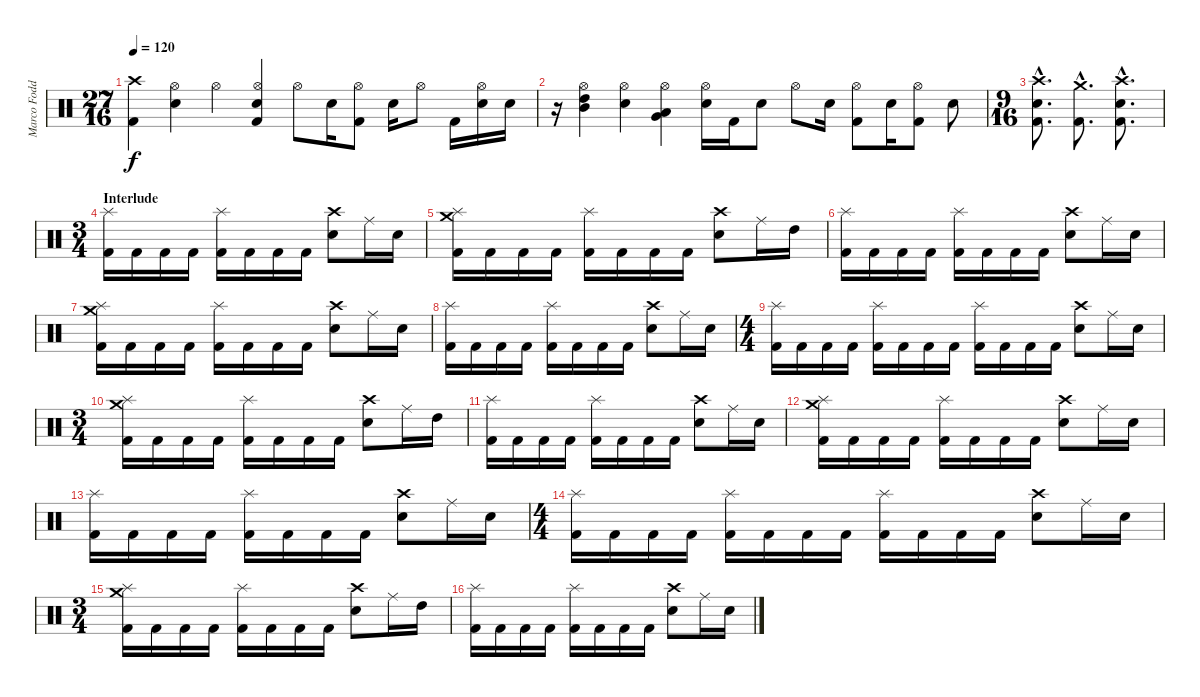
\track ("Marco Foddis " "Marco Fodd") {instrument percussion}
\staff {score}
\articulation defaults
\ts (27 16)
\tempo 120
\clef neutral
\ks c
("Crash high (hit)" "Kick (hit) 2").4{dy f} ("Hi-Hat (open)" "Electric Snare (hit)").4 "Hi-Hat (open)".4 ("Hi-Hat (open)" "Electric Snare (hit)" "Kick (hit) 2").4 "Hi-Hat (open)".8 "Electric Snare (hit)".16 ("Hi-Hat (open)" "Kick (hit) 2").8 "Electric Snare (hit)".16 "Hi-Hat (open)".8 "Kick (hit) 2".16 ("Hi-Hat (open)" "Electric Snare (hit)").16 "Electric Snare (hit)".16 |
r.16 ("Hi-Hat (open)" "High Tom (hit)" "Mid Tom (hit)").4 ("Hi-Hat (open)" "Electric Snare (hit)").4 ("Hi-Hat (open)" "Very Low Tom (hit)" "Low Tom (hit)").4 ("Hi-Hat (open)" "Electric Snare (hit)").16 "Kick (hit) 2".16 "Electric Snare (hit)".8 "Hi-Hat (open)".8 "Electric Snare (hit)".16 ("Hi-Hat (open)" "Kick (hit) 2").8 "Electric Snare (hit)".16 ("Hi-Hat (open)" "Kick (hit) 2").8 "Electric Snare (hit)".8 |
\ts (9 16)
("Crash high (hit)"{hac} "Electric Snare (hit)"{hac} "Kick (hit) 2"{hac}).8{d} ("Crash medium (hit)"{hac} "Kick (hit) 2"{hac}).8{d} ("Crash high (hit)"{hac} "Electric Snare (hit)"{hac} "Kick (hit) 2"{hac}).8{d} |
\ts (3 4)
\section ("" "Interlude")
("Splash (hit)" "Kick (hit) 2").16 "Kick (hit) 2".16 "Kick (hit) 2".16 "Kick (hit) 2".16 ("Splash (hit)" "Kick (hit) 2").16 "Kick (hit) 2".16 "Kick (hit) 2".16 "Kick (hit) 2".16 ("Crash high (hit)" "Electric Snare (hit)").8 "Ride (middle)".16 "Electric Snare (hit)".16 |
("Crash medium (hit)" "Splash (hit)" "Kick (hit) 2").16 "Kick (hit) 2".16 "Kick (hit) 2".16 "Kick (hit) 2".16 ("Splash (hit)" "Kick (hit) 2").16 "Kick (hit) 2".16 "Kick (hit) 2".16 "Kick (hit) 2".16 ("Crash high (hit)" "Electric Snare (hit)").8 "Ride (middle)".16 "High Tom (hit)".16 |
("Splash (hit)" "Kick (hit) 2").16 "Kick (hit) 2".16 "Kick (hit) 2".16 "Kick (hit) 2".16 ("Splash (hit)" "Kick (hit) 2").16 "Kick (hit) 2".16 "Kick (hit) 2".16 "Kick (hit) 2".16 ("Crash high (hit)" "Electric Snare (hit)").8 "Ride (middle)".16 "Electric Snare (hit)".16 |
("Crash medium (hit)" "Splash (hit)" "Kick (hit) 2").16 "Kick (hit) 2".16 "Kick (hit) 2".16 "Kick (hit) 2".16 ("Splash (hit)" "Kick (hit) 2").16 "Kick (hit) 2".16 "Kick (hit) 2".16 "Kick (hit) 2".16 ("Crash high (hit)" "Electric Snare (hit)").8 "Ride (middle)".16 "Electric Snare (hit)".16 |
("Splash (hit)" "Kick (hit) 2").16 "Kick (hit) 2".16 "Kick (hit) 2".16 "Kick (hit) 2".16 ("Splash (hit)" "Kick (hit) 2").16 "Kick (hit) 2".16 "Kick (hit) 2".16 "Kick (hit) 2".16 ("Crash high (hit)" "Electric Snare (hit)").8 "Ride (middle)".16 "Electric Snare (hit)".16 |
\ts (4 4)
("Splash (hit)" "Kick (hit) 2").16 "Kick (hit) 2".16 "Kick (hit) 2".16 "Kick (hit) 2".16 ("Splash (hit)" "Kick (hit) 2").16 "Kick (hit) 2".16 "Kick (hit) 2".16 "Kick (hit) 2".16 ("Splash (hit)" "Kick (hit) 2").16 "Kick (hit) 2".16 "Kick (hit) 2".16 "Kick (hit) 2".16 ("Crash high (hit)" "Electric Snare (hit)").8 "Ride (middle)".16 "Electric Snare (hit)".16 |
\ts (3 4)
("Crash medium (hit)" "Splash (hit)" "Kick (hit) 2").16 "Kick (hit) 2".16 "Kick (hit) 2".16 "Kick (hit) 2".16 ("Splash (hit)" "Kick (hit) 2").16 "Kick (hit) 2".16 "Kick (hit) 2".16 "Kick (hit) 2".16 ("Crash high (hit)" "Electric Snare (hit)").8 "Ride (middle)".16 "High Tom (hit)".16 |
("Splash (hit)" "Kick (hit) 2").16 "Kick (hit) 2".16 "Kick (hit) 2".16 "Kick (hit) 2".16 ("Splash (hit)" "Kick (hit) 2").16 "Kick (hit) 2".16 "Kick (hit) 2".16 "Kick (hit) 2".16 ("Crash high (hit)" "Electric Snare (hit)").8 "Ride (middle)".16 "Electric Snare (hit)".16 |
("Crash medium (hit)" "Splash (hit)" "Kick (hit) 2").16 "Kick (hit) 2".16 "Kick (hit) 2".16 "Kick (hit) 2".16 ("Splash (hit)" "Kick (hit) 2").16 "Kick (hit) 2".16 "Kick (hit) 2".16 "Kick (hit) 2".16 ("Crash high (hit)" "Electric Snare (hit)").8 "Ride (middle)".16 "Electric Snare (hit)".16 |
("Splash (hit)" "Kick (hit) 2").16 "Kick (hit) 2".16 "Kick (hit) 2".16 "Kick (hit) 2".16 ("Splash (hit)" "Kick (hit) 2").16 "Kick (hit) 2".16 "Kick (hit) 2".16 "Kick (hit) 2".16 ("Crash high (hit)" "Electric Snare (hit)").8 "Ride (middle)".16 "Electric Snare (hit)".16 |
\ts (4 4)
("Splash (hit)" "Kick (hit) 2").16 "Kick (hit) 2".16 "Kick (hit) 2".16 "Kick (hit) 2".16 ("Splash (hit)" "Kick (hit) 2").16 "Kick (hit) 2".16 "Kick (hit) 2".16 "Kick (hit) 2".16 ("Splash (hit)" "Kick (hit) 2").16 "Kick (hit) 2".16 "Kick (hit) 2".16 "Kick (hit) 2".16 ("Crash high (hit)" "Electric Snare (hit)").8 "Ride (middle)".16 "Electric Snare (hit)".16 |
\ts (3 4)
("Crash medium (hit)" "Splash (hit)" "Kick (hit) 2").16 "Kick (hit) 2".16 "Kick (hit) 2".16 "Kick (hit) 2".16 ("Splash (hit)" "Kick (hit) 2").16 "Kick (hit) 2".16 "Kick (hit) 2".16 "Kick (hit) 2".16 ("Crash high (hit)" "Electric Snare (hit)").8 "Ride (middle)".16 "High Tom (hit)".16 |
("Splash (hit)" "Kick (hit) 2").16 "Kick (hit) 2".16 "Kick (hit) 2".16 "Kick (hit) 2".16 ("Splash (hit)" "Kick (hit) 2").16 "Kick (hit) 2".16 "Kick (hit) 2".16 "Kick (hit) 2".16 ("Crash high (hit)" "Electric Snare (hit)").8 "Ride (middle)".16 "Electric Snare (hit)".16
